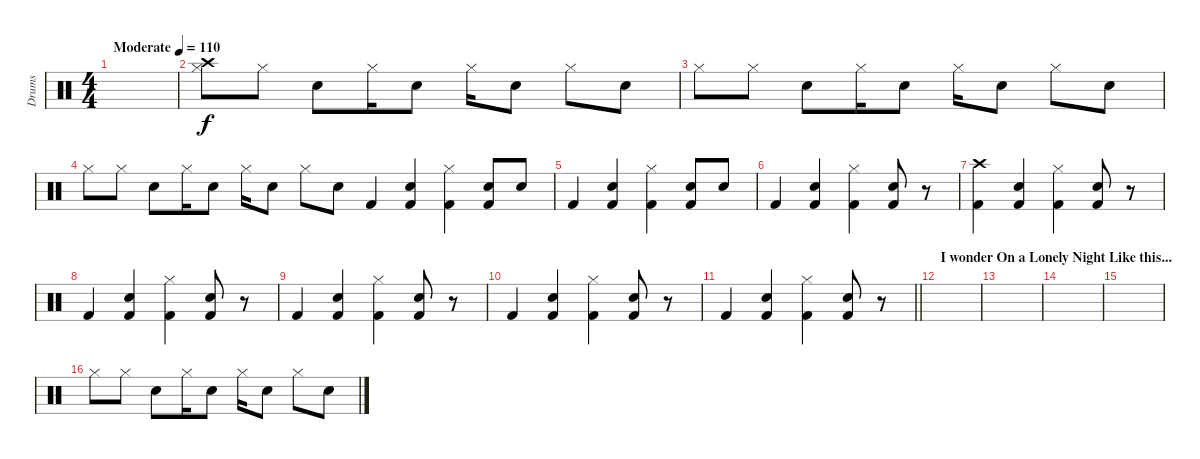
\track ("Drums" "Drums") {instrument percussion}
\staff {score}
\articulation defaults
\ts (4 4)
\tempo (110 "Moderate")
\clef neutral
\ks c
|
("Crash high (hit)" "Hi-Hat (closed)").8 "Hi-Hat (closed)".8 "Electric Snare (hit)".8 "Hi-Hat (closed)".16 "Electric Snare (hit)".8 "Hi-Hat (closed)".16 "Electric Snare (hit)".8 "Hi-Hat (closed)".8 "Electric Snare (hit)".8 |
"Hi-Hat (closed)".8 "Hi-Hat (closed)".8 "Electric Snare (hit)".8 "Hi-Hat (closed)".16 "Electric Snare (hit)".8 "Hi-Hat (closed)".16 "Electric Snare (hit)".8 "Hi-Hat (closed)".8 "Electric Snare (hit)".8 |
"Hi-Hat (closed)".8 "Hi-Hat (closed)".8 "Electric Snare (hit)".8 "Hi-Hat (closed)".16 "Electric Snare (hit)".8 "Hi-Hat (closed)".16 "Electric Snare (hit)".8 "Hi-Hat (closed)".8 "Electric Snare (hit)".8 "Kick (hit) 2".4 ("Snare (hit) 2" "Kick (hit) 2").4 ("Hi-Hat (closed)" "Kick (hit) 2").4 ("Snare (hit) 2" "Kick (hit) 2").8 "Snare (hit) 2".8 |
"Kick (hit) 2".4 ("Snare (hit) 2" "Kick (hit) 2").4 ("Hi-Hat (closed)" "Kick (hit) 2").4 ("Snare (hit) 2" "Kick (hit) 2").8 "Snare (hit) 2".8 |
"Kick (hit) 2".4 ("Snare (hit) 2" "Kick (hit) 2").4 ("Hi-Hat (closed)" "Kick (hit) 2").4 ("Snare (hit) 2" "Kick (hit) 2").8 r.8 |
("Crash high (hit)" "Kick (hit) 2").4 ("Snare (hit) 2" "Kick (hit) 2").4 ("Hi-Hat (closed)" "Kick (hit) 2").4 ("Snare (hit) 2" "Kick (hit) 2").8 r.8 |
"Kick (hit) 2".4 ("Snare (hit) 2" "Kick (hit) 2").4 ("Hi-Hat (closed)" "Kick (hit) 2").4 ("Snare (hit) 2" "Kick (hit) 2").8 r.8 |
"Kick (hit) 2".4 ("Snare (hit) 2" "Kick (hit) 2").4 ("Hi-Hat (closed)" "Kick (hit) 2").4 ("Snare (hit) 2" "Kick (hit) 2").8 r.8 |
"Kick (hit) 2".4 ("Snare (hit) 2" "Kick (hit) 2").4 ("Hi-Hat (closed)" "Kick (hit) 2").4 ("Snare (hit) 2" "Kick (hit) 2").8 r.8 |
\barLineRight lightlight "Kick (hit) 2".4
("Snare (hit) 2" "Kick (hit) 2").4 ("Hi-Hat (closed)" "Kick (hit) 2").4 ("Snare (hit) 2" "Kick (hit) 2").8 r.8 |
\section ("" "I wonder On a Lonely Night Like this...")
|
|
|
|
"Hi-Hat (closed)".8 "Hi-Hat (closed)".8 "Electric Snare (hit)".8 "Hi-Hat (closed)".16 "Electric Snare (hit)".8 "Hi-Hat (closed)".16 "Electric Snare (hit)".8 "Hi-Hat (closed)".8 "Electric Snare (hit)".8
